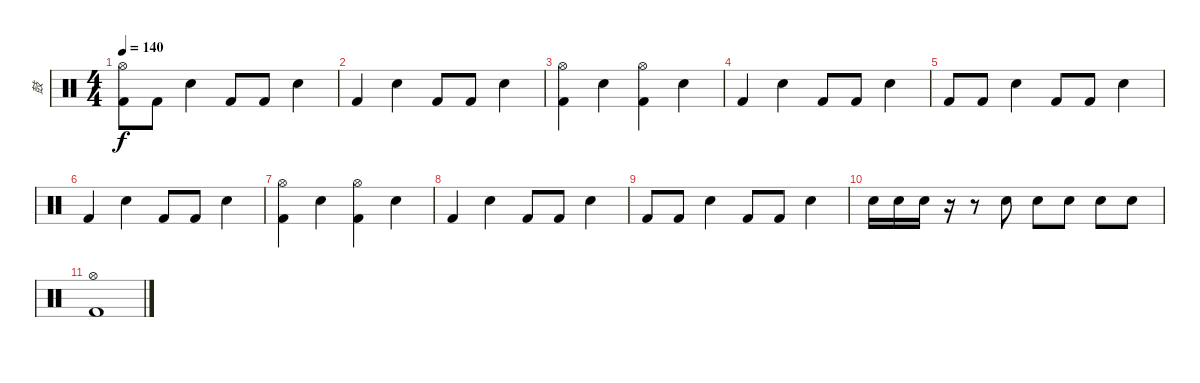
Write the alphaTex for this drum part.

\track ("鼓" "鼓") {instrument percussion}
\staff {score}
\articulation defaults
\ts (4 4)
\tempo 140
\clef neutral
\ks c
("Hi-Hat (open)" "Kick (hit) 2").8{dy f} "Kick (hit) 2".8 "Electric Snare (hit)".4 "Kick (hit) 2".8 "Kick (hit) 2".8 "Electric Snare (hit)".4 |
"Kick (hit) 2".4 "Electric Snare (hit)".4 "Kick (hit) 2".8 "Kick (hit) 2".8 "Electric Snare (hit)".4 |
("Hi-Hat (open)" "Kick (hit) 2").4 "Electric Snare (hit)".4 ("Hi-Hat (open)" "Kick (hit) 2").4 "Electric Snare (hit)".4 |
"Kick (hit) 2".4 "Electric Snare (hit)".4 "Kick (hit) 2".8 "Kick (hit) 2".8 "Electric Snare (hit)".4 |
"Kick (hit) 2".8 "Kick (hit) 2".8 "Electric Snare (hit)".4 "Kick (hit) 2".8 "Kick (hit) 2".8 "Electric Snare (hit)".4 |
"Kick (hit) 2".4 "Electric Snare (hit)".4 "Kick (hit) 2".8 "Kick (hit) 2".8 "Electric Snare (hit)".4 |
("Hi-Hat (open)" "Kick (hit) 2").4 "Electric Snare (hit)".4 ("Hi-Hat (open)" "Kick (hit) 2").4 "Electric Snare (hit)".4 |
"Kick (hit) 2".4 "Electric Snare (hit)".4 "Kick (hit) 2".8 "Kick (hit) 2".8 "Electric Snare (hit)".4 |
"Kick (hit) 2".8 "Kick (hit) 2".8 "Electric Snare (hit)".4 "Kick (hit) 2".8 "Kick (hit) 2".8 "Electric Snare (hit)".4 |
"Electric Snare (hit)".16 "Electric Snare (hit)".16 "Electric Snare (hit)".16 r.16 r.8 "Electric Snare (hit)".8 "Electric Snare (hit)".8 "Electric Snare (hit)".8 "Electric Snare (hit)".8 "Electric Snare (hit)".8 |
("Hi-Hat (open)" "Kick (hit) 2").1
